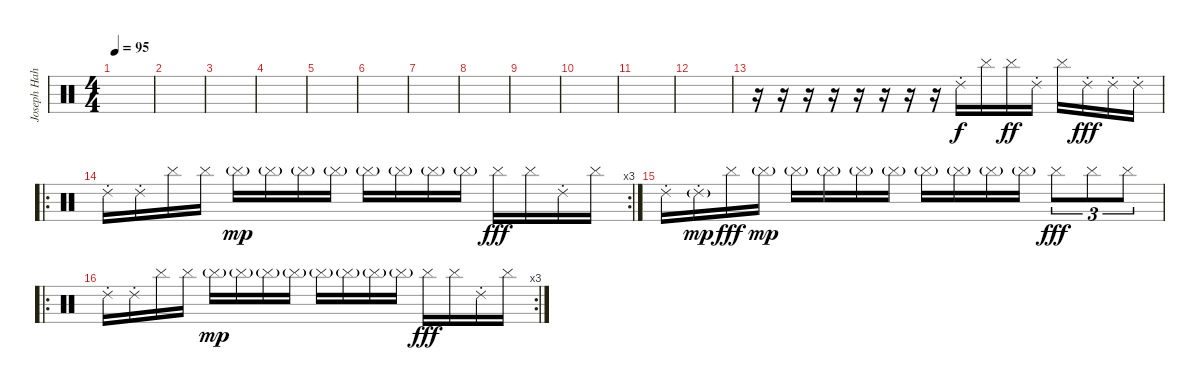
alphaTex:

\track ("Joseph Hahn (Strange sounds/Turntables)" "Joseph Hah") {instrument percussion}
\staff {score}
\articulation defaults
\ts (4 4)
\tempo 95
\clef neutral
\ks c
|
|
|
|
|
|
|
|
|
|
|
|
r.16 r.16 r.16 r.16 r.16 r.16 r.16 r.16 "Ride (choke) 2".16 "Cymbal (hit)".16 "Cymbal (hit)".16{dy ff} "Ride (choke) 2".16 "Cymbal (hit)".16 "Ride (choke) 2".16{dy fff} "Ride (choke) 2".16 "Ride (choke) 2".16 |
\ro
\rc 3 "Ride (choke) 2".16 "Ride (choke) 2".16 "Cymbal (hit)".16 "Cymbal (hit)".16 "Cymbal (hit)"{g}.16{dy mp} "Cymbal (hit)"{g}.16 "Cymbal (hit)"{g}.16 "Cymbal (hit)"{g}.16 "Cymbal (hit)"{g}.16 "Cymbal (hit)"{g}.16 "Cymbal (hit)"{g}.16 "Cymbal (hit)"{g}.16 "Cymbal (hit)".16{dy fff} "Cymbal (hit)".16 "Ride (choke) 2".16 "Cymbal (hit)".16
|
"Ride (choke) 2".16 "Ride (choke) 2"{g}.16{dy mp} "Cymbal (hit)".16{dy fff} "Cymbal (hit)"{g}.16{dy mp} "Cymbal (hit)"{g}.16 "Cymbal (hit)"{g}.16 "Cymbal (hit)"{g}.16 "Cymbal (hit)"{g}.16 "Cymbal (hit)"{g}.16 "Cymbal (hit)"{g}.16 "Cymbal (hit)"{g}.16 "Cymbal (hit)"{g}.16 "Cymbal (hit)".8{tu (3 2) dy fff} "Cymbal (hit)".8{tu (3 2)} "Cymbal (hit)".8{tu (3 2)} |
\ro
\rc 3 "Ride (choke) 2".16 "Ride (choke) 2".16 "Cymbal (hit)".16 "Cymbal (hit)".16 "Cymbal (hit)"{g}.16{dy mp} "Cymbal (hit)"{g}.16 "Cymbal (hit)"{g}.16 "Cymbal (hit)"{g}.16 "Cymbal (hit)"{g}.16 "Cymbal (hit)"{g}.16 "Cymbal (hit)"{g}.16 "Cymbal (hit)"{g}.16 "Cymbal (hit)".16{dy fff} "Cymbal (hit)".16 "Ride (choke) 2".16 "Cymbal (hit)".16
